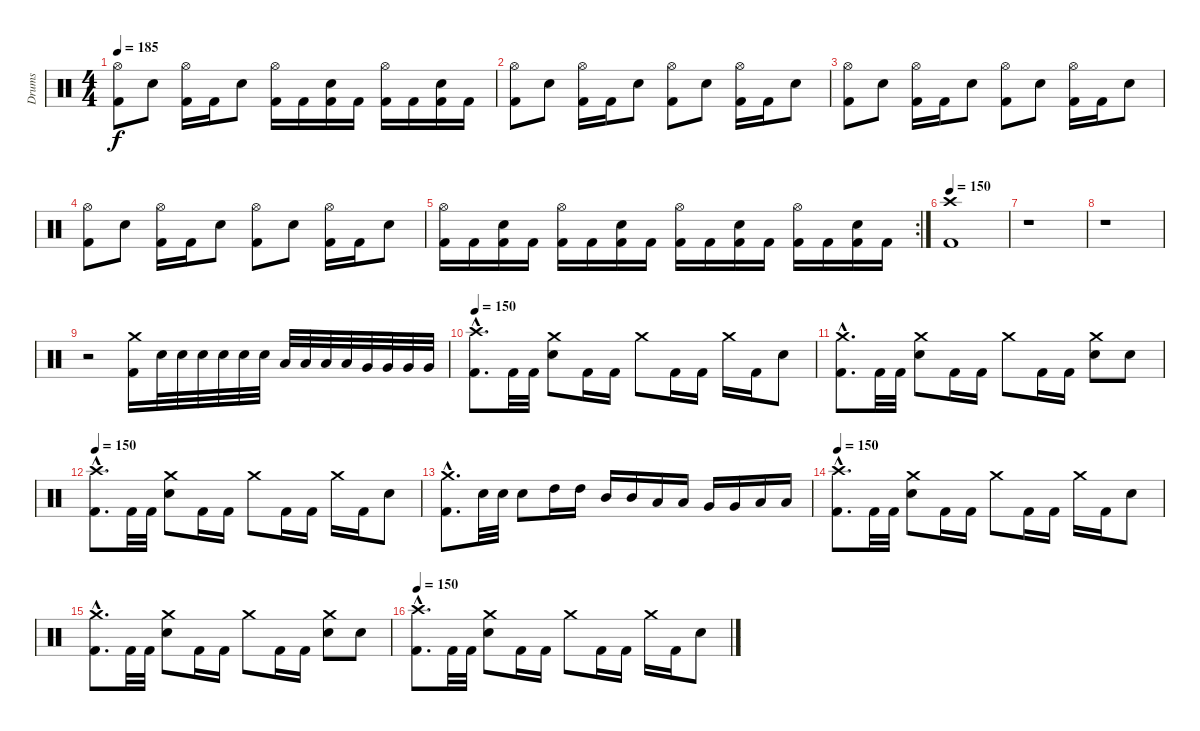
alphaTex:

\track ("Drums" "Drums") {instrument percussion}
\staff {score}
\articulation defaults
\ts (4 4)
\tempo 185
\clef neutral
\ks c
("Hi-Hat (open)" "Kick (hit) 2").8{dy f} "Electric Snare (hit)".8 ("Hi-Hat (open)" "Kick (hit) 2").16 "Kick (hit) 2".16 "Electric Snare (hit)".8 ("Hi-Hat (open)" "Kick (hit) 2").16 "Kick (hit) 2".16 ("Electric Snare (hit)" "Kick (hit) 2").16 "Kick (hit) 2".16 ("Hi-Hat (open)" "Kick (hit) 2").16 "Kick (hit) 2".16 ("Electric Snare (hit)" "Kick (hit) 2").16 "Kick (hit) 2".16 |
("Hi-Hat (open)" "Kick (hit) 2").8 "Electric Snare (hit)".8 ("Hi-Hat (open)" "Kick (hit) 2").16 "Kick (hit) 2".16 "Electric Snare (hit)".8 ("Hi-Hat (open)" "Kick (hit) 2").8 "Electric Snare (hit)".8 ("Hi-Hat (open)" "Kick (hit) 2").16 "Kick (hit) 2".16 "Electric Snare (hit)".8 |
("Hi-Hat (open)" "Kick (hit) 2").8 "Electric Snare (hit)".8 ("Hi-Hat (open)" "Kick (hit) 2").16 "Kick (hit) 2".16 "Electric Snare (hit)".8 ("Hi-Hat (open)" "Kick (hit) 2").8 "Electric Snare (hit)".8 ("Hi-Hat (open)" "Kick (hit) 2").16 "Kick (hit) 2".16 "Electric Snare (hit)".8 |
("Hi-Hat (open)" "Kick (hit) 2").8 "Electric Snare (hit)".8 ("Hi-Hat (open)" "Kick (hit) 2").16 "Kick (hit) 2".16 "Electric Snare (hit)".8 ("Hi-Hat (open)" "Kick (hit) 2").8 "Electric Snare (hit)".8 ("Hi-Hat (open)" "Kick (hit) 2").16 "Kick (hit) 2".16 "Electric Snare (hit)".8 |
\rc 2
("Hi-Hat (open)" "Kick (hit) 2").16 "Kick (hit) 2".16 ("Electric Snare (hit)" "Kick (hit) 2").16 "Kick (hit) 2".16 ("Hi-Hat (open)" "Kick (hit) 2").16 "Kick (hit) 2".16 ("Electric Snare (hit)" "Kick (hit) 2").16 "Kick (hit) 2".16 ("Hi-Hat (open)" "Kick (hit) 2").16 "Kick (hit) 2".16 ("Electric Snare (hit)" "Kick (hit) 2").16 "Kick (hit) 2".16 ("Hi-Hat (open)" "Kick (hit) 2").16 "Kick (hit) 2".16 ("Electric Snare (hit)" "Kick (hit) 2").16 "Kick (hit) 2".16 |
\tempo 150
("Crash high (hit)" "Kick (hit) 2").1 |
r.1 |
r.1 |
r.2 ("Crash medium (hit)" "Kick (hit) 2").16 "Electric Snare (hit)".32 "Electric Snare (hit)".32 "Electric Snare (hit)".32 "Electric Snare (hit)".32 "Electric Snare (hit)".32 "Electric Snare (hit)".32 "Low Tom (hit)".32 "Low Tom (hit)".32 "Low Tom (hit)".32 "Low Tom (hit)".32 "Very Low Tom (hit)".32 "Very Low Tom (hit)".32 "Very Low Tom (hit)".32 "Very Low Tom (hit)".32 |
\tempo 150
("Crash high (hit)"{hac} "Kick (hit) 2"{hac}).8{d} "Kick (hit) 2".32 "Kick (hit) 2".32 ("Crash medium (hit)" "Electric Snare (hit)").8 "Kick (hit) 2".16 "Kick (hit) 2".16 "Crash medium (hit)".8 "Kick (hit) 2".16 "Kick (hit) 2".16 "Crash medium (hit)".16 "Kick (hit) 2".16 "Electric Snare (hit)".8 |
("Crash medium (hit)"{hac} "Kick (hit) 2"{hac}).8{d} "Kick (hit) 2".32 "Kick (hit) 2".32 ("Crash medium (hit)" "Electric Snare (hit)").8 "Kick (hit) 2".16 "Kick (hit) 2".16 "Crash medium (hit)".8 "Kick (hit) 2".16 "Kick (hit) 2".16 ("Crash medium (hit)" "Electric Snare (hit)").8 "Electric Snare (hit)".8 |
\tempo 150
("Crash high (hit)"{hac} "Kick (hit) 2"{hac}).8{d} "Kick (hit) 2".32 "Kick (hit) 2".32 ("Crash medium (hit)" "Electric Snare (hit)").8 "Kick (hit) 2".16 "Kick (hit) 2".16 "Crash medium (hit)".8 "Kick (hit) 2".16 "Kick (hit) 2".16 "Crash medium (hit)".16 "Kick (hit) 2".16 "Electric Snare (hit)".8 |
("Crash medium (hit)"{hac} "Kick (hit) 2"{hac}).8{d} "Electric Snare (hit)".32 "Electric Snare (hit)".32 "Electric Snare (hit)".8 "High Tom (hit)".16 "High Tom (hit)".16 "Mid Tom (hit)".16 "Mid Tom (hit)".16 "Low Tom (hit)".16 "Low Tom (hit)".16 "Very Low Tom (hit)".16 "Very Low Tom (hit)".16 "Low Floor Tom (hit)".16 "Low Floor Tom (hit)".16 |
\tempo 150
("Crash high (hit)"{hac} "Kick (hit) 2"{hac}).8{d} "Kick (hit) 2".32 "Kick (hit) 2".32 ("Crash medium (hit)" "Electric Snare (hit)").8 "Kick (hit) 2".16 "Kick (hit) 2".16 "Crash medium (hit)".8 "Kick (hit) 2".16 "Kick (hit) 2".16 "Crash medium (hit)".16 "Kick (hit) 2".16 "Electric Snare (hit)".8 |
("Crash medium (hit)"{hac} "Kick (hit) 2"{hac}).8{d} "Kick (hit) 2".32 "Kick (hit) 2".32 ("Crash medium (hit)" "Electric Snare (hit)").8 "Kick (hit) 2".16 "Kick (hit) 2".16 "Crash medium (hit)".8 "Kick (hit) 2".16 "Kick (hit) 2".16 ("Crash medium (hit)" "Electric Snare (hit)").8 "Electric Snare (hit)".8 |
\tempo 150
("Crash high (hit)"{hac} "Kick (hit) 2"{hac}).8{d} "Kick (hit) 2".32 "Kick (hit) 2".32 ("Crash medium (hit)" "Electric Snare (hit)").8 "Kick (hit) 2".16 "Kick (hit) 2".16 "Crash medium (hit)".8 "Kick (hit) 2".16 "Kick (hit) 2".16 "Crash medium (hit)".16 "Kick (hit) 2".16 "Electric Snare (hit)".8
